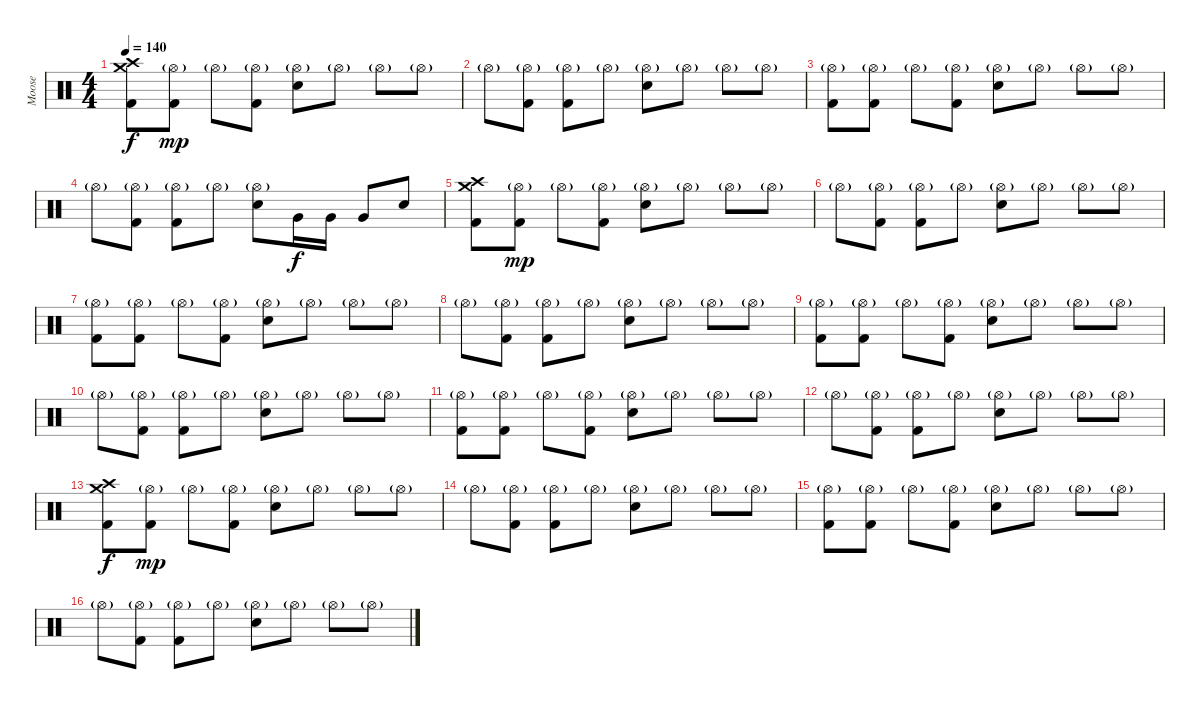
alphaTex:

\track ("Moose" "Moose") {instrument percussion}
\staff {score}
\articulation defaults
\ts (4 4)
\tempo 140
\clef neutral
\ks c
("Crash high (hit)" "Crash medium (hit)" "Kick (hit) 2").8{dy f} ("Hi-Hat (open)"{g} "Kick (hit) 2").8{dy mp} "Hi-Hat (open)"{g}.8 ("Hi-Hat (open)"{g} "Kick (hit) 2").8 ("Hi-Hat (open)"{g} "Snare (hit) 2").8 "Hi-Hat (open)"{g}.8 "Hi-Hat (open)"{g}.8 "Hi-Hat (open)"{g}.8 |
"Hi-Hat (open)"{g}.8 ("Hi-Hat (open)"{g} "Kick (hit) 2").8 ("Hi-Hat (open)"{g} "Kick (hit) 2").8 "Hi-Hat (open)"{g}.8 ("Hi-Hat (open)"{g} "Snare (hit) 2").8 "Hi-Hat (open)"{g}.8 "Hi-Hat (open)"{g}.8 "Hi-Hat (open)"{g}.8 |
("Hi-Hat (open)"{g} "Kick (hit) 2").8 ("Hi-Hat (open)"{g} "Kick (hit) 2").8 "Hi-Hat (open)"{g}.8 ("Hi-Hat (open)"{g} "Kick (hit) 2").8 ("Hi-Hat (open)"{g} "Snare (hit) 2").8 "Hi-Hat (open)"{g}.8 "Hi-Hat (open)"{g}.8 "Hi-Hat (open)"{g}.8 |
"Hi-Hat (open)"{g}.8 ("Hi-Hat (open)"{g} "Kick (hit) 2").8 ("Hi-Hat (open)"{g} "Kick (hit) 2").8 "Hi-Hat (open)"{g}.8 ("Hi-Hat (open)"{g} "Snare (hit) 2").8 "Very Low Tom (hit)".16{dy f} "Very Low Tom (hit)".16 "Very Low Tom (hit)".8 "Snare (hit) 2".8 |
("Crash high (hit)" "Crash medium (hit)" "Kick (hit) 2").8 ("Hi-Hat (open)"{g} "Kick (hit) 2").8{dy mp} "Hi-Hat (open)"{g}.8 ("Hi-Hat (open)"{g} "Kick (hit) 2").8 ("Hi-Hat (open)"{g} "Snare (hit) 2").8 "Hi-Hat (open)"{g}.8 "Hi-Hat (open)"{g}.8 "Hi-Hat (open)"{g}.8 |
"Hi-Hat (open)"{g}.8 ("Hi-Hat (open)"{g} "Kick (hit) 2").8 ("Hi-Hat (open)"{g} "Kick (hit) 2").8 "Hi-Hat (open)"{g}.8 ("Hi-Hat (open)"{g} "Snare (hit) 2").8 "Hi-Hat (open)"{g}.8 "Hi-Hat (open)"{g}.8 "Hi-Hat (open)"{g}.8 |
("Hi-Hat (open)"{g} "Kick (hit) 2").8 ("Hi-Hat (open)"{g} "Kick (hit) 2").8 "Hi-Hat (open)"{g}.8 ("Hi-Hat (open)"{g} "Kick (hit) 2").8 ("Hi-Hat (open)"{g} "Snare (hit) 2").8 "Hi-Hat (open)"{g}.8 "Hi-Hat (open)"{g}.8 "Hi-Hat (open)"{g}.8 |
"Hi-Hat (open)"{g}.8 ("Hi-Hat (open)"{g} "Kick (hit) 2").8 ("Hi-Hat (open)"{g} "Kick (hit) 2").8 "Hi-Hat (open)"{g}.8 ("Hi-Hat (open)"{g} "Snare (hit) 2").8 "Hi-Hat (open)"{g}.8 "Hi-Hat (open)"{g}.8 "Hi-Hat (open)"{g}.8 |
("Hi-Hat (open)"{g} "Kick (hit) 2").8 ("Hi-Hat (open)"{g} "Kick (hit) 2").8 "Hi-Hat (open)"{g}.8 ("Hi-Hat (open)"{g} "Kick (hit) 2").8 ("Hi-Hat (open)"{g} "Snare (hit) 2").8 "Hi-Hat (open)"{g}.8 "Hi-Hat (open)"{g}.8 "Hi-Hat (open)"{g}.8 |
"Hi-Hat (open)"{g}.8 ("Hi-Hat (open)"{g} "Kick (hit) 2").8 ("Hi-Hat (open)"{g} "Kick (hit) 2").8 "Hi-Hat (open)"{g}.8 ("Hi-Hat (open)"{g} "Snare (hit) 2").8 "Hi-Hat (open)"{g}.8 "Hi-Hat (open)"{g}.8 "Hi-Hat (open)"{g}.8 |
("Hi-Hat (open)"{g} "Kick (hit) 2").8 ("Hi-Hat (open)"{g} "Kick (hit) 2").8 "Hi-Hat (open)"{g}.8 ("Hi-Hat (open)"{g} "Kick (hit) 2").8 ("Hi-Hat (open)"{g} "Snare (hit) 2").8 "Hi-Hat (open)"{g}.8 "Hi-Hat (open)"{g}.8 "Hi-Hat (open)"{g}.8 |
"Hi-Hat (open)"{g}.8 ("Hi-Hat (open)"{g} "Kick (hit) 2").8 ("Hi-Hat (open)"{g} "Kick (hit) 2").8 "Hi-Hat (open)"{g}.8 ("Hi-Hat (open)"{g} "Snare (hit) 2").8 "Hi-Hat (open)"{g}.8 "Hi-Hat (open)"{g}.8 "Hi-Hat (open)"{g}.8 |
("Crash high (hit)" "Crash medium (hit)" "Kick (hit) 2").8{dy f} ("Hi-Hat (open)"{g} "Kick (hit) 2").8{dy mp} "Hi-Hat (open)"{g}.8 ("Hi-Hat (open)"{g} "Kick (hit) 2").8 ("Hi-Hat (open)"{g} "Snare (hit) 2").8 "Hi-Hat (open)"{g}.8 "Hi-Hat (open)"{g}.8 "Hi-Hat (open)"{g}.8 |
"Hi-Hat (open)"{g}.8 ("Hi-Hat (open)"{g} "Kick (hit) 2").8 ("Hi-Hat (open)"{g} "Kick (hit) 2").8 "Hi-Hat (open)"{g}.8 ("Hi-Hat (open)"{g} "Snare (hit) 2").8 "Hi-Hat (open)"{g}.8 "Hi-Hat (open)"{g}.8 "Hi-Hat (open)"{g}.8 |
("Hi-Hat (open)"{g} "Kick (hit) 2").8 ("Hi-Hat (open)"{g} "Kick (hit) 2").8 "Hi-Hat (open)"{g}.8 ("Hi-Hat (open)"{g} "Kick (hit) 2").8 ("Hi-Hat (open)"{g} "Snare (hit) 2").8 "Hi-Hat (open)"{g}.8 "Hi-Hat (open)"{g}.8 "Hi-Hat (open)"{g}.8 |
"Hi-Hat (open)"{g}.8 ("Hi-Hat (open)"{g} "Kick (hit) 2").8 ("Hi-Hat (open)"{g} "Kick (hit) 2").8 "Hi-Hat (open)"{g}.8 ("Hi-Hat (open)"{g} "Snare (hit) 2").8 "Hi-Hat (open)"{g}.8 "Hi-Hat (open)"{g}.8 "Hi-Hat (open)"{g}.8
